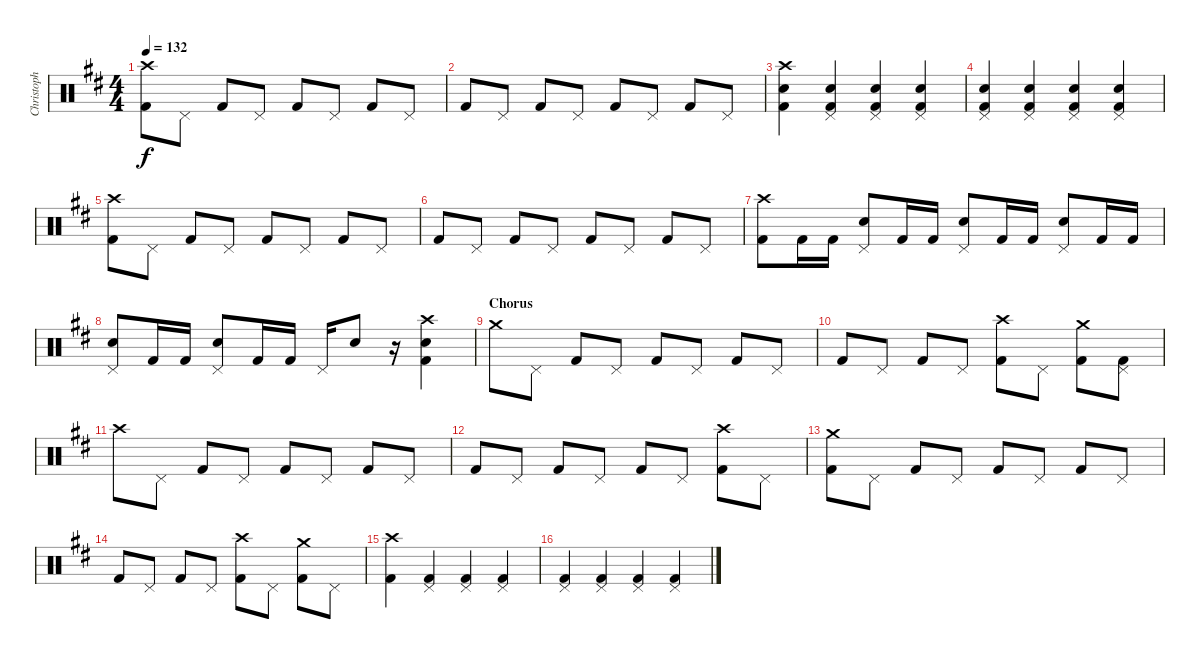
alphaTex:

\track ("Christoph Doom Schneider - Drums" "Christoph ") {instrument percussion}
\staff {score}
\articulation defaults
\ts (4 4)
\tempo 132
\clef neutral
\ks d
("Crash high (hit)" "Kick (hit) 2").8{dy f} "Pedal Hi-Hat (hit)".8 "Kick (hit) 2".8 "Pedal Hi-Hat (hit)".8 "Kick (hit) 2".8 "Pedal Hi-Hat (hit)".8 "Kick (hit) 2".8 "Pedal Hi-Hat (hit)".8 |
"Kick (hit) 2".8 "Pedal Hi-Hat (hit)".8 "Kick (hit) 2".8 "Pedal Hi-Hat (hit)".8 "Kick (hit) 2".8 "Pedal Hi-Hat (hit)".8 "Kick (hit) 2".8 "Pedal Hi-Hat (hit)".8 |
("Crash high (hit)" "Snare (hit) 2" "Kick (hit) 2").4 ("Pedal Hi-Hat (hit)" "Snare (hit) 2" "Kick (hit) 2").4 ("Pedal Hi-Hat (hit)" "Snare (hit) 2" "Kick (hit) 2").4 ("Pedal Hi-Hat (hit)" "Snare (hit) 2" "Kick (hit) 2").4 |
("Pedal Hi-Hat (hit)" "Snare (hit) 2" "Kick (hit) 2").4 ("Pedal Hi-Hat (hit)" "Snare (hit) 2" "Kick (hit) 2").4 ("Pedal Hi-Hat (hit)" "Snare (hit) 2" "Kick (hit) 2").4 ("Pedal Hi-Hat (hit)" "Snare (hit) 2" "Kick (hit) 2").4 |
("Crash high (hit)" "Kick (hit) 2").8 "Pedal Hi-Hat (hit)".8 "Kick (hit) 2".8 "Pedal Hi-Hat (hit)".8 "Kick (hit) 2".8 "Pedal Hi-Hat (hit)".8 "Kick (hit) 2".8 "Pedal Hi-Hat (hit)".8 |
"Kick (hit) 2".8 "Pedal Hi-Hat (hit)".8 "Kick (hit) 2".8 "Pedal Hi-Hat (hit)".8 "Kick (hit) 2".8 "Pedal Hi-Hat (hit)".8 "Kick (hit) 2".8 "Pedal Hi-Hat (hit)".8 |
("Crash high (hit)" "Kick (hit) 2").8 "Kick (hit) 2".16 "Kick (hit) 2".16 ("Pedal Hi-Hat (hit)" "Snare (hit) 2").8 "Kick (hit) 2".16 "Kick (hit) 2".16 ("Pedal Hi-Hat (hit)" "Snare (hit) 2").8 "Kick (hit) 2".16 "Kick (hit) 2".16 ("Pedal Hi-Hat (hit)" "Snare (hit) 2").8 "Kick (hit) 2".16 "Kick (hit) 2".16 |
("Pedal Hi-Hat (hit)" "Snare (hit) 2").8 "Kick (hit) 2".16 "Kick (hit) 2".16 ("Pedal Hi-Hat (hit)" "Snare (hit) 2").8 "Kick (hit) 2".16 "Kick (hit) 2".16 "Pedal Hi-Hat (hit)".16 "Snare (hit) 2".8 r.16 ("Crash high (hit)" "Snare (hit) 2" "Kick (hit) 2").4 |
\section ("" "Chorus")
"Crash medium (hit)".8 "Pedal Hi-Hat (hit)".8 "Kick (hit) 2".8 "Pedal Hi-Hat (hit)".8 "Kick (hit) 2".8 "Pedal Hi-Hat (hit)".8 "Kick (hit) 2".8 "Pedal Hi-Hat (hit)".8 |
"Kick (hit) 2".8 "Pedal Hi-Hat (hit)".8 "Kick (hit) 2".8 "Pedal Hi-Hat (hit)".8 ("Crash high (hit)" "Kick (hit) 2").8 "Pedal Hi-Hat (hit)".8 ("Crash medium (hit)" "Kick (hit) 2").8 ("Pedal Hi-Hat (hit)" "Kick (hit) 2").8 |
"Crash high (hit)".8 "Pedal Hi-Hat (hit)".8 "Kick (hit) 2".8 "Pedal Hi-Hat (hit)".8 "Kick (hit) 2".8 "Pedal Hi-Hat (hit)".8 "Kick (hit) 2".8 "Pedal Hi-Hat (hit)".8 |
"Kick (hit) 2".8 "Pedal Hi-Hat (hit)".8 "Kick (hit) 2".8 "Pedal Hi-Hat (hit)".8 "Kick (hit) 2".8 "Pedal Hi-Hat (hit)".8 ("Crash high (hit)" "Kick (hit) 2").8 "Pedal Hi-Hat (hit)".8 |
("Crash medium (hit)" "Kick (hit) 2").8 "Pedal Hi-Hat (hit)".8 "Kick (hit) 2".8 "Pedal Hi-Hat (hit)".8 "Kick (hit) 2".8 "Pedal Hi-Hat (hit)".8 "Kick (hit) 2".8 "Pedal Hi-Hat (hit)".8 |
"Kick (hit) 2".8 "Pedal Hi-Hat (hit)".8 "Kick (hit) 2".8 "Pedal Hi-Hat (hit)".8 ("Crash high (hit)" "Kick (hit) 2").8 "Pedal Hi-Hat (hit)".8 ("Crash medium (hit)" "Kick (hit) 2").8 "Pedal Hi-Hat (hit)".8 |
("Crash high (hit)" "Kick (hit) 2").4 ("Pedal Hi-Hat (hit)" "Kick (hit) 2").4 ("Pedal Hi-Hat (hit)" "Kick (hit) 2").4 ("Pedal Hi-Hat (hit)" "Kick (hit) 2").4 |
("Pedal Hi-Hat (hit)" "Kick (hit) 2").4 ("Pedal Hi-Hat (hit)" "Kick (hit) 2").4 ("Pedal Hi-Hat (hit)" "Kick (hit) 2").4 ("Pedal Hi-Hat (hit)" "Kick (hit) 2").4
